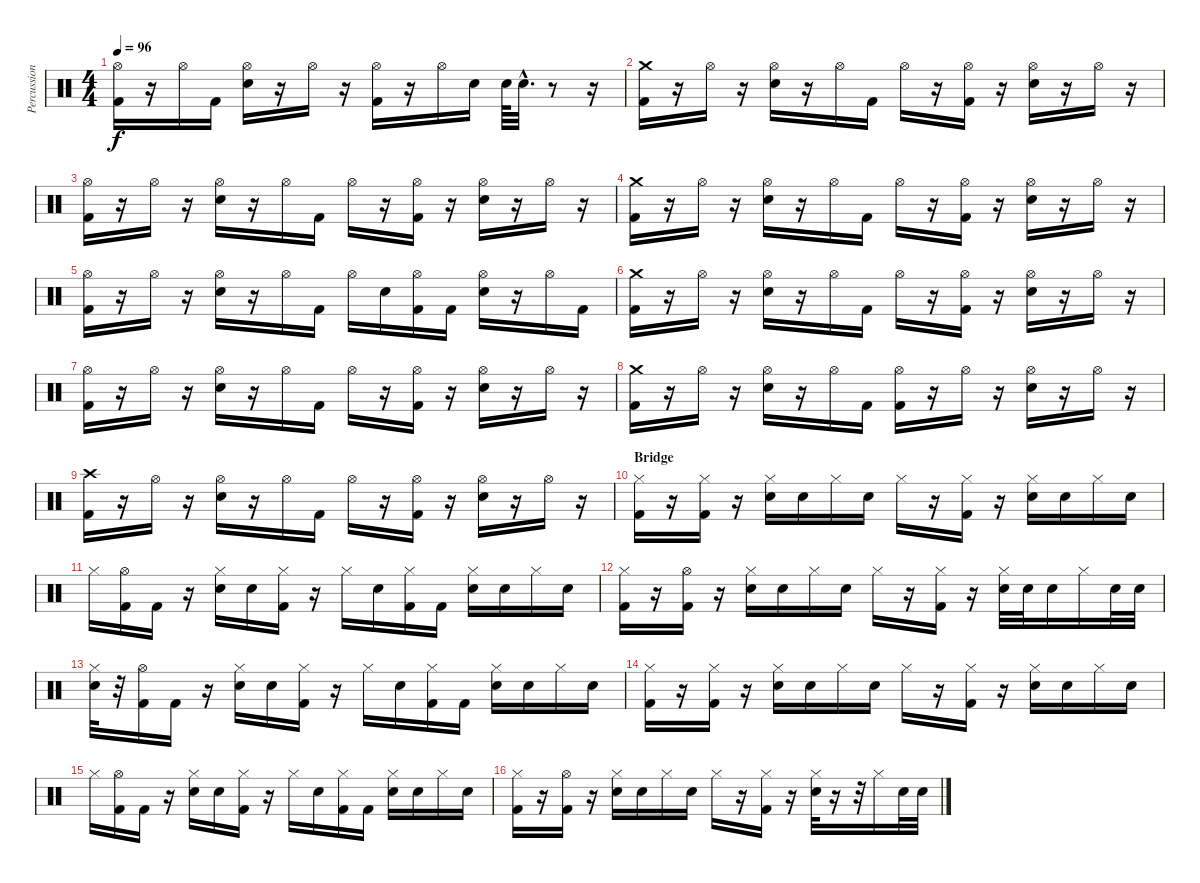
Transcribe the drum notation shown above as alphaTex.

\track ("Percussion" "Percussion") {instrument percussion}
\staff {score}
\articulation defaults
\ts (4 4)
\tempo 96
\clef neutral
\ks c
("Hi-Hat (open)" "Kick (hit) 2").16{dy f} r.16 "Hi-Hat (open)".16 "Kick (hit) 2".16 ("Electric Snare (hit)" "Hi-Hat (open)").16 r.16 "Hi-Hat (open)".16 r.16 ("Kick (hit) 2" "Hi-Hat (open)").16 r.16 "Hi-Hat (open)".16 "Electric Snare (hit)".16 "Electric Snare (hit)".64 "Electric Snare (hit)"{hac}.32{d} r.8 r.16 |
("Kick (hit) 2" "Crash medium (hit)").16 r.16 "Hi-Hat (open)".16 r.16 ("Electric Snare (hit)" "Hi-Hat (open)").16 r.16 "Hi-Hat (open)".16 "Kick (hit) 2".16 "Hi-Hat (open)".16 r.16 ("Hi-Hat (open)" "Kick (hit) 2").16 r.16 ("Hi-Hat (open)" "Electric Snare (hit)").16 r.16 "Hi-Hat (open)".16 r.16 |
("Hi-Hat (open)" "Kick (hit) 2").16 r.16 "Hi-Hat (open)".16 r.16 ("Hi-Hat (open)" "Electric Snare (hit)").16 r.16 "Hi-Hat (open)".16 "Kick (hit) 2".16 "Hi-Hat (open)".16 r.16 ("Hi-Hat (open)" "Kick (hit) 2").16 r.16 ("Hi-Hat (open)" "Electric Snare (hit)").16 r.16 "Hi-Hat (open)".16 r.16 |
("Kick (hit) 2" "Crash medium (hit)").16 r.16 "Hi-Hat (open)".16 r.16 ("Electric Snare (hit)" "Hi-Hat (open)").16 r.16 "Hi-Hat (open)".16 "Kick (hit) 2".16 "Hi-Hat (open)".16 r.16 ("Hi-Hat (open)" "Kick (hit) 2").16 r.16 ("Hi-Hat (open)" "Electric Snare (hit)").16 r.16 "Hi-Hat (open)".16 r.16 |
("Hi-Hat (open)" "Kick (hit) 2").16 r.16 "Hi-Hat (open)".16 r.16 ("Hi-Hat (open)" "Electric Snare (hit)").16 r.16 "Hi-Hat (open)".16 "Kick (hit) 2".16 "Hi-Hat (open)".16 "Electric Snare (hit)".16 ("Hi-Hat (open)" "Kick (hit) 2").16 "Kick (hit) 2".16 ("Hi-Hat (open)" "Electric Snare (hit)").16 r.16 "Hi-Hat (open)".16 "Kick (hit) 2".16 |
("Kick (hit) 2" "Crash medium (hit)").16 r.16 "Hi-Hat (open)".16 r.16 ("Electric Snare (hit)" "Hi-Hat (open)").16 r.16 "Hi-Hat (open)".16 "Kick (hit) 2".16 "Hi-Hat (open)".16 r.16 ("Hi-Hat (open)" "Kick (hit) 2").16 r.16 ("Hi-Hat (open)" "Electric Snare (hit)").16 r.16 "Hi-Hat (open)".16 r.16 |
("Hi-Hat (open)" "Kick (hit) 2").16 r.16 "Hi-Hat (open)".16 r.16 ("Hi-Hat (open)" "Electric Snare (hit)").16 r.16 "Hi-Hat (open)".16 "Kick (hit) 2".16 "Hi-Hat (open)".16 r.16 ("Hi-Hat (open)" "Kick (hit) 2").16 r.16 ("Hi-Hat (open)" "Electric Snare (hit)").16 r.16 "Hi-Hat (open)".16 r.16 |
("Kick (hit) 2" "Crash medium (hit)").16 r.16 "Hi-Hat (open)".16 r.16 ("Electric Snare (hit)" "Hi-Hat (open)").16 r.16 "Hi-Hat (open)".16 "Kick (hit) 2".16 ("Kick (hit) 2" "Hi-Hat (open)").16 r.16 "Hi-Hat (open)".16 r.16 ("Hi-Hat (open)" "Electric Snare (hit)").16 r.16 "Hi-Hat (open)".16 r.16 |
("Crash high (hit)" "Kick (hit) 2").16 r.16 "Hi-Hat (open)".16 r.16 ("Hi-Hat (open)" "Electric Snare (hit)").16 r.16 "Hi-Hat (open)".16 "Kick (hit) 2".16 "Hi-Hat (open)".16 r.16 ("Hi-Hat (open)" "Kick (hit) 2").16 r.16 ("Hi-Hat (open)" "Electric Snare (hit)").16 r.16 "Hi-Hat (open)".16 r.16 |
\section ("" "Bridge")
("Kick (hit) 2" "Hi-Hat (closed)").16 r.16 ("Hi-Hat (closed)" "Kick (hit) 2").16 r.16 ("Hi-Hat (closed)" "Electric Snare (hit)").16 "Electric Snare (hit)".16 "Hi-Hat (closed)".16 "Electric Snare (hit)".16 "Hi-Hat (closed)".16 r.16 ("Hi-Hat (closed)" "Kick (hit) 2").16 r.16 ("Hi-Hat (closed)" "Electric Snare (hit)").16 "Electric Snare (hit)".16 "Hi-Hat (closed)".16 "Electric Snare (hit)".16 |
"Hi-Hat (closed)".16 ("Hi-Hat (open)" "Kick (hit) 2").16 "Kick (hit) 2".16 r.16 ("Hi-Hat (closed)" "Electric Snare (hit)").16 "Electric Snare (hit)".16 ("Hi-Hat (closed)" "Kick (hit) 2").16 r.16 "Hi-Hat (closed)".16 "Electric Snare (hit)".16 ("Hi-Hat (closed)" "Kick (hit) 2").16 "Kick (hit) 2".16 ("Hi-Hat (closed)" "Electric Snare (hit)").16 "Electric Snare (hit)".16 "Hi-Hat (closed)".16 "Electric Snare (hit)".16 |
("Kick (hit) 2" "Hi-Hat (closed)").16 r.16 ("Hi-Hat (open)" "Kick (hit) 2").16 r.16 ("Hi-Hat (closed)" "Electric Snare (hit)").16 "Electric Snare (hit)".16 "Hi-Hat (closed)".16 "Electric Snare (hit)".16 "Hi-Hat (closed)".16 r.16 ("Hi-Hat (closed)" "Kick (hit) 2").16 r.16 ("Hi-Hat (closed)" "Electric Snare (hit)").32 "Electric Snare (hit)".32 "Electric Snare (hit)".16 "Hi-Hat (closed)".16 "Electric Snare (hit)".32 "Electric Snare (hit)".32 |
("Electric Snare (hit)" "Hi-Hat (closed)").32 r.32 ("Hi-Hat (open)" "Kick (hit) 2").16 "Kick (hit) 2".16 r.16 ("Hi-Hat (closed)" "Electric Snare (hit)").16 "Electric Snare (hit)".16 ("Hi-Hat (closed)" "Kick (hit) 2").16 r.16 "Hi-Hat (closed)".16 "Electric Snare (hit)".16 ("Hi-Hat (closed)" "Kick (hit) 2").16 "Kick (hit) 2".16 ("Hi-Hat (closed)" "Electric Snare (hit)").16 "Electric Snare (hit)".16 "Hi-Hat (closed)".16 "Electric Snare (hit)".16 |
("Kick (hit) 2" "Hi-Hat (closed)").16 r.16 ("Hi-Hat (closed)" "Kick (hit) 2").16 r.16 ("Hi-Hat (closed)" "Electric Snare (hit)").16 "Electric Snare (hit)".16 "Hi-Hat (closed)".16 "Electric Snare (hit)".16 "Hi-Hat (closed)".16 r.16 ("Hi-Hat (closed)" "Kick (hit) 2").16 r.16 ("Hi-Hat (closed)" "Electric Snare (hit)").16 "Electric Snare (hit)".16 "Hi-Hat (closed)".16 "Electric Snare (hit)".16 |
"Hi-Hat (closed)".16 ("Hi-Hat (open)" "Kick (hit) 2").16 "Kick (hit) 2".16 r.16 ("Hi-Hat (closed)" "Electric Snare (hit)").16 "Electric Snare (hit)".16 ("Hi-Hat (closed)" "Kick (hit) 2").16 r.16 "Hi-Hat (closed)".16 "Electric Snare (hit)".16 ("Hi-Hat (closed)" "Kick (hit) 2").16 "Kick (hit) 2".16 ("Hi-Hat (closed)" "Electric Snare (hit)").16 "Electric Snare (hit)".16 "Hi-Hat (closed)".16 "Electric Snare (hit)".16 |
("Kick (hit) 2" "Hi-Hat (closed)").16 r.16 ("Hi-Hat (open)" "Kick (hit) 2").16 r.16 ("Hi-Hat (closed)" "Electric Snare (hit)").16 "Electric Snare (hit)".16 "Hi-Hat (closed)".16 "Electric Snare (hit)".16 "Hi-Hat (closed)".16 r.16 ("Hi-Hat (closed)" "Kick (hit) 2").16 r.16 ("Hi-Hat (closed)" "Electric Snare (hit)").32 r.16 r.32 "Hi-Hat (closed)".16 "Electric Snare (hit)".32 "Electric Snare (hit)".32
